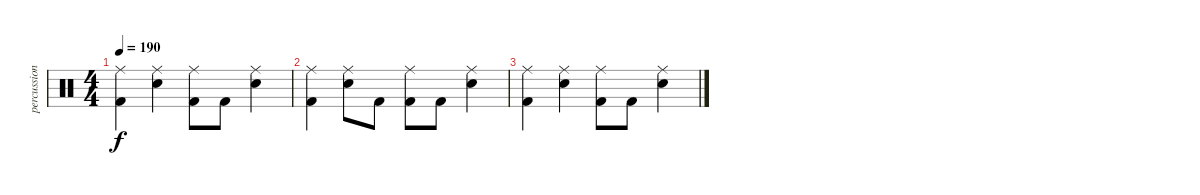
\track ("percussion" "percussion") {instrument percussion}
\staff {score}
\articulation defaults
\ts (4 4)
\tempo 190
\clef neutral
\ks c
("Ride (middle)" "Kick (hit) 2").4{dy f} ("Ride (middle)" "Snare (hit) 2").4 ("Ride (middle)" "Kick (hit) 2").8 "Kick (hit) 2".8 ("Ride (middle)" "Snare (hit) 2").4 |
("Ride (middle)" "Kick (hit) 2").4 ("Ride (middle)" "Snare (hit) 2").8 "Kick (hit) 2".8 ("Ride (middle)" "Kick (hit) 2").8 "Kick (hit) 2".8 ("Ride (middle)" "Snare (hit) 2").4 |
("Ride (middle)" "Kick (hit) 2").4 ("Ride (middle)" "Snare (hit) 2").4 ("Ride (middle)" "Kick (hit) 2").8 "Kick (hit) 2".8 ("Ride (middle)" "Snare (hit) 2").4
